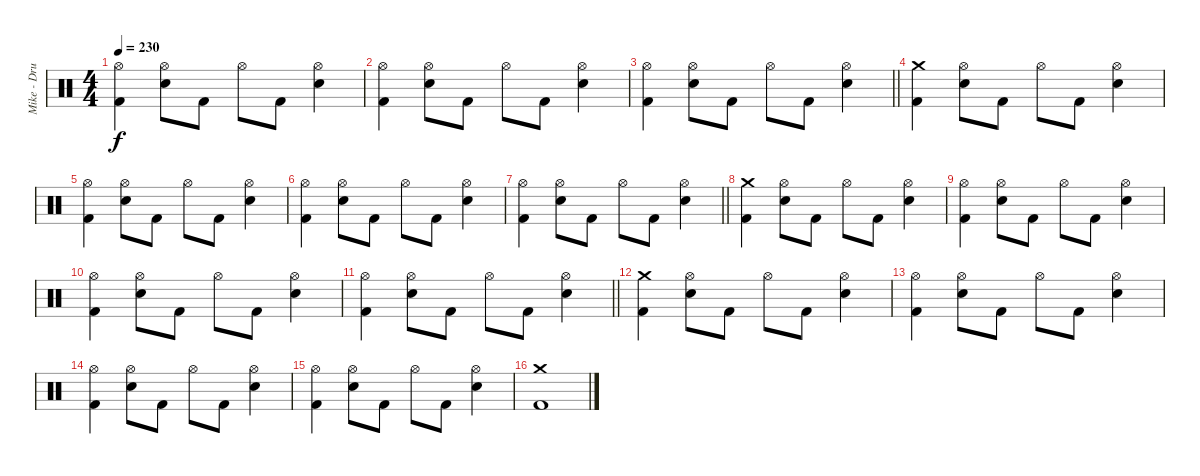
\track ("Mike - Drums" "Mike - Dru") {instrument percussion}
\staff {score}
\articulation defaults
\ts (4 4)
\tempo 230
\clef neutral
\ks c
("Hi-Hat (open)" "Kick (hit) 2").4{dy f} ("Hi-Hat (open)" "Electric Snare (hit)").8 "Kick (hit) 2".8 "Hi-Hat (open)".8 "Kick (hit) 2".8 ("Hi-Hat (open)" "Electric Snare (hit)").4 |
("Hi-Hat (open)" "Kick (hit) 2").4 ("Hi-Hat (open)" "Electric Snare (hit)").8 "Kick (hit) 2".8 "Hi-Hat (open)".8 "Kick (hit) 2".8 ("Hi-Hat (open)" "Electric Snare (hit)").4 |
\barLineRight lightlight
("Hi-Hat (open)" "Kick (hit) 2").4 ("Hi-Hat (open)" "Electric Snare (hit)").8 "Kick (hit) 2".8 "Hi-Hat (open)".8 "Kick (hit) 2".8 ("Hi-Hat (open)" "Electric Snare (hit)").4 |
("Crash medium (hit)" "Kick (hit) 2").4 ("Hi-Hat (open)" "Electric Snare (hit)").8 "Kick (hit) 2".8 "Hi-Hat (open)".8 "Kick (hit) 2".8 ("Hi-Hat (open)" "Electric Snare (hit)").4 |
("Hi-Hat (open)" "Kick (hit) 2").4 ("Hi-Hat (open)" "Electric Snare (hit)").8 "Kick (hit) 2".8 "Hi-Hat (open)".8 "Kick (hit) 2".8 ("Hi-Hat (open)" "Electric Snare (hit)").4 |
("Hi-Hat (open)" "Kick (hit) 2").4 ("Hi-Hat (open)" "Electric Snare (hit)").8 "Kick (hit) 2".8 "Hi-Hat (open)".8 "Kick (hit) 2".8 ("Hi-Hat (open)" "Electric Snare (hit)").4 |
\barLineRight lightlight
("Hi-Hat (open)" "Kick (hit) 2").4 ("Hi-Hat (open)" "Electric Snare (hit)").8 "Kick (hit) 2".8 "Hi-Hat (open)".8 "Kick (hit) 2".8 ("Hi-Hat (open)" "Electric Snare (hit)").4 |
("Crash medium (hit)" "Kick (hit) 2").4 ("Hi-Hat (open)" "Electric Snare (hit)").8 "Kick (hit) 2".8 "Hi-Hat (open)".8 "Kick (hit) 2".8 ("Hi-Hat (open)" "Electric Snare (hit)").4 |
("Hi-Hat (open)" "Kick (hit) 2").4 ("Hi-Hat (open)" "Electric Snare (hit)").8 "Kick (hit) 2".8 "Hi-Hat (open)".8 "Kick (hit) 2".8 ("Hi-Hat (open)" "Electric Snare (hit)").4 |
("Hi-Hat (open)" "Kick (hit) 2").4 ("Hi-Hat (open)" "Electric Snare (hit)").8 "Kick (hit) 2".8 "Hi-Hat (open)".8 "Kick (hit) 2".8 ("Hi-Hat (open)" "Electric Snare (hit)").4 |
\barLineRight lightlight
("Hi-Hat (open)" "Kick (hit) 2").4 ("Hi-Hat (open)" "Electric Snare (hit)").8 "Kick (hit) 2".8 "Hi-Hat (open)".8 "Kick (hit) 2".8 ("Hi-Hat (open)" "Electric Snare (hit)").4 |
("Crash medium (hit)" "Kick (hit) 2").4 ("Hi-Hat (open)" "Electric Snare (hit)").8 "Kick (hit) 2".8 "Hi-Hat (open)".8 "Kick (hit) 2".8 ("Hi-Hat (open)" "Electric Snare (hit)").4 |
("Hi-Hat (open)" "Kick (hit) 2").4 ("Hi-Hat (open)" "Electric Snare (hit)").8 "Kick (hit) 2".8 "Hi-Hat (open)".8 "Kick (hit) 2".8 ("Hi-Hat (open)" "Electric Snare (hit)").4 |
("Hi-Hat (open)" "Kick (hit) 2").4 ("Hi-Hat (open)" "Electric Snare (hit)").8 "Kick (hit) 2".8 "Hi-Hat (open)".8 "Kick (hit) 2".8 ("Hi-Hat (open)" "Electric Snare (hit)").4 |
("Hi-Hat (open)" "Kick (hit) 2").4 ("Hi-Hat (open)" "Electric Snare (hit)").8 "Kick (hit) 2".8 "Hi-Hat (open)".8 "Kick (hit) 2".8 ("Hi-Hat (open)" "Electric Snare (hit)").4 |
("Crash medium (hit)" "Kick (hit) 2").1
